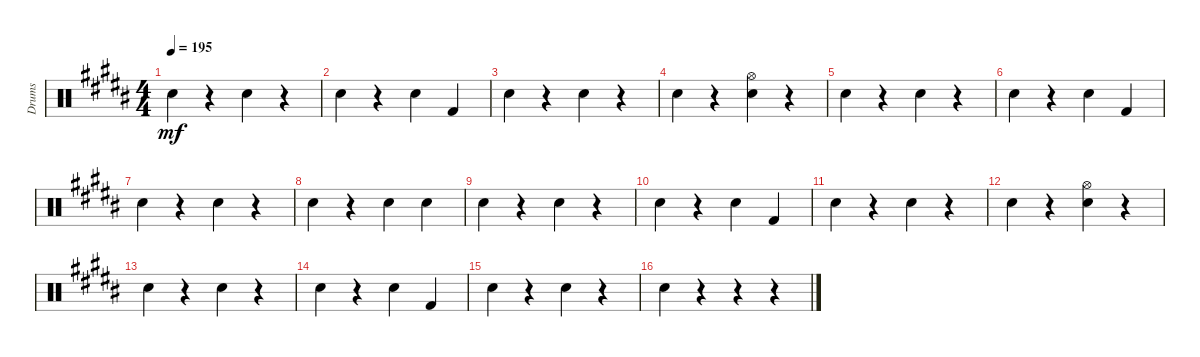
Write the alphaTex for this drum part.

\track ("Drums" "Drums") {instrument percussion}
\staff {score}
\articulation defaults
\ts (4 4)
\tempo 195
\clef neutral
\ks b "Electric Snare (hit)".4{dy mf}
r.4 "Electric Snare (hit)".4 r.4 |
"Electric Snare (hit)".4 r.4 "Electric Snare (hit)".4 "Kick (hit) 2".4 |
"Electric Snare (hit)".4 r.4 "Electric Snare (hit)".4 r.4 |
"Electric Snare (hit)".4 r.4 ("Hi-Hat (open)" "Electric Snare (hit)").4 r.4 |
"Electric Snare (hit)".4 r.4 "Electric Snare (hit)".4 r.4 |
"Electric Snare (hit)".4 r.4 "Electric Snare (hit)".4 "Kick (hit) 2".4 |
"Electric Snare (hit)".4 r.4 "Electric Snare (hit)".4 r.4 |
"Electric Snare (hit)".4 r.4 "Electric Snare (hit)".4 "Electric Snare (hit)".4 |
"Electric Snare (hit)".4 r.4 "Electric Snare (hit)".4 r.4 |
"Electric Snare (hit)".4 r.4 "Electric Snare (hit)".4 "Kick (hit) 2".4 |
"Electric Snare (hit)".4 r.4 "Electric Snare (hit)".4 r.4 |
"Electric Snare (hit)".4 r.4 ("Hi-Hat (open)" "Electric Snare (hit)").4 r.4 |
"Electric Snare (hit)".4 r.4 "Electric Snare (hit)".4 r.4 |
"Electric Snare (hit)".4 r.4 "Electric Snare (hit)".4 "Kick (hit) 2".4 |
"Electric Snare (hit)".4 r.4 "Electric Snare (hit)".4 r.4 |
"Electric Snare (hit)".4 r.4 r.4 r.4
